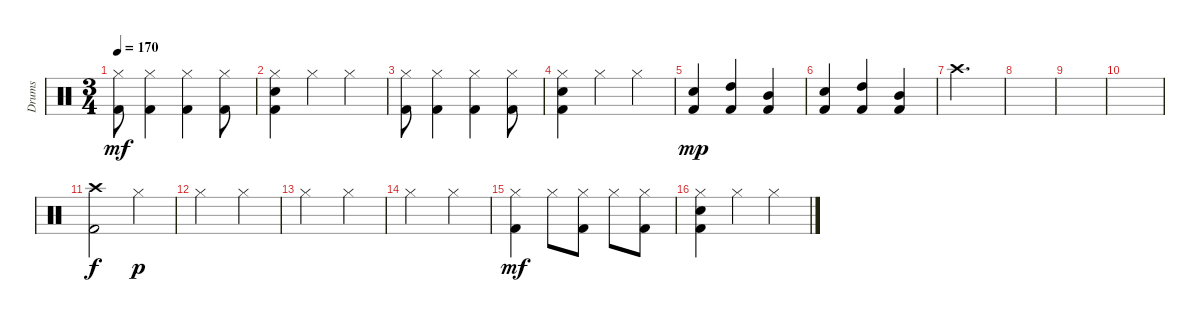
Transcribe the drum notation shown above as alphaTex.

\track ("Drums" "Drums") {instrument percussion}
\staff {score}
\articulation defaults
\ts (3 4)
\tempo 170
\clef neutral
\ks c
("Hi-Hat (closed)" "Kick (hit) 2").8{dy mf} ("Hi-Hat (closed)" "Kick (hit) 2").4 ("Hi-Hat (closed)" "Kick (hit) 2").4 ("Hi-Hat (closed)" "Kick (hit) 2").8 |
("Hi-Hat (closed)" "Snare (hit) 2" "Kick (hit) 2").4 "Hi-Hat (closed)".4 "Hi-Hat (closed)".4 |
("Hi-Hat (closed)" "Kick (hit) 2").8 ("Hi-Hat (closed)" "Kick (hit) 2").4 ("Hi-Hat (closed)" "Kick (hit) 2").4 ("Hi-Hat (closed)" "Kick (hit) 2").8 |
("Hi-Hat (closed)" "Snare (hit) 2" "Kick (hit) 2").4 "Hi-Hat (closed)".4 "Hi-Hat (closed)".4 |
("Snare (hit) 2" "Kick (hit) 2").4{dy mp} ("High Tom (hit)" "Kick (hit) 2").4 ("Mid Tom (hit)" "Kick (hit) 2").4 |
("Snare (hit) 2" "Kick (hit) 2").4 ("High Tom (hit)" "Kick (hit) 2").4 ("Mid Tom (hit)" "Kick (hit) 2").4 |
"Crash high (hit)".2{d} |
|
|
|
("Crash high (hit)" "Kick (hit) 2").2{dy f} "Hi-Hat (closed)".4{dy p} |
"Hi-Hat (closed)".2 "Hi-Hat (closed)".4 |
"Hi-Hat (closed)".2 "Hi-Hat (closed)".4 |
"Hi-Hat (closed)".2 "Hi-Hat (closed)".4 |
("Hi-Hat (closed)" "Kick (hit) 2").4{dy mf} "Hi-Hat (closed)".8 ("Hi-Hat (closed)" "Kick (hit) 2").8 "Hi-Hat (closed)".8 ("Hi-Hat (closed)" "Kick (hit) 2").8 |
("Hi-Hat (closed)" "Snare (hit) 2" "Kick (hit) 2").4 "Hi-Hat (closed)".4 "Hi-Hat (closed)".4
